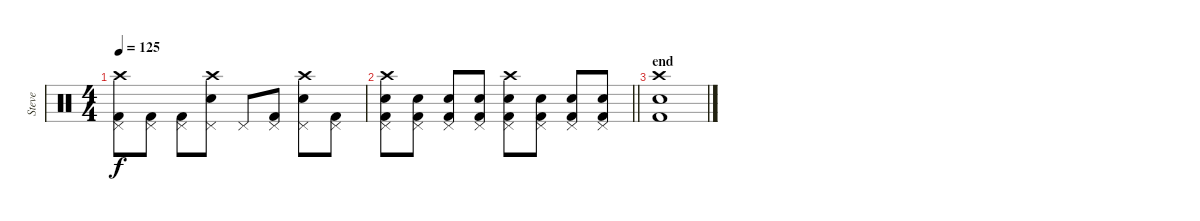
\track ("Steve" "Steve") {instrument percussion}
\staff {score}
\articulation defaults
\ts (4 4)
\tempo 125
\clef neutral
\ks c
("Crash high (hit)" "Pedal Hi-Hat (hit)" "Kick (hit) 2").8{dy f} ("Pedal Hi-Hat (hit)" "Kick (hit) 2").8 ("Pedal Hi-Hat (hit)" "Kick (hit) 2").8 ("Crash high (hit)" "Pedal Hi-Hat (hit)" "Electric Snare (hit)").8 "Pedal Hi-Hat (hit)".8 ("Pedal Hi-Hat (hit)" "Kick (hit) 2").8 ("Crash high (hit)" "Pedal Hi-Hat (hit)" "Electric Snare (hit)").8 ("Pedal Hi-Hat (hit)" "Kick (hit) 2").8 |
\barLineRight lightlight
("Crash high (hit)" "Pedal Hi-Hat (hit)" "Electric Snare (hit)" "Kick (hit) 2").8 ("Pedal Hi-Hat (hit)" "Electric Snare (hit)" "Kick (hit) 2").8 ("Pedal Hi-Hat (hit)" "Electric Snare (hit)" "Kick (hit) 2").8 ("Pedal Hi-Hat (hit)" "Electric Snare (hit)" "Kick (hit) 2").8 ("Crash high (hit)" "Pedal Hi-Hat (hit)" "Electric Snare (hit)" "Kick (hit) 2").8 ("Pedal Hi-Hat (hit)" "Electric Snare (hit)" "Kick (hit) 2").8 ("Pedal Hi-Hat (hit)" "Electric Snare (hit)" "Kick (hit) 2").8 ("Pedal Hi-Hat (hit)" "Electric Snare (hit)" "Kick (hit) 2").8 |
\section ("" "end")
("Crash high (hit)" "Electric Snare (hit)" "Kick (hit) 2").1
